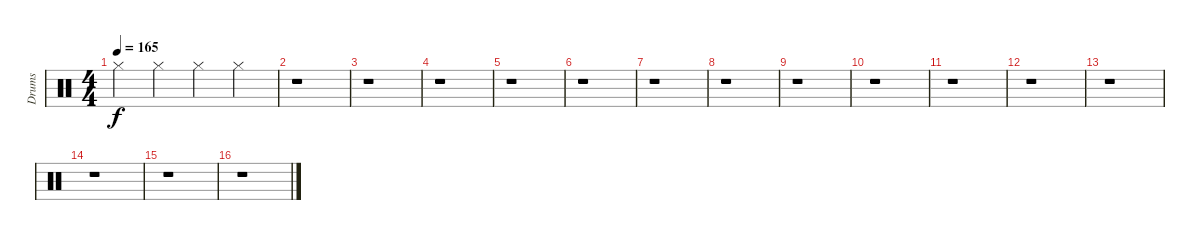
\track ("Drums" "Drums") {instrument percussion}
\staff {score}
\articulation defaults
\ts (4 4)
\tempo 165
\clef neutral
\ks c "Hi-Hat (closed)".4{dy f} "Hi-Hat (closed)".4 "Hi-Hat (closed)".4 "Hi-Hat (closed)".4
|
r.1 |
r.1 |
r.1 |
r.1 |
r.1 |
r.1 |
r.1 |
r.1 |
r.1 |
r.1 |
r.1 |
r.1 |
r.1 |
r.1 |
r.1
